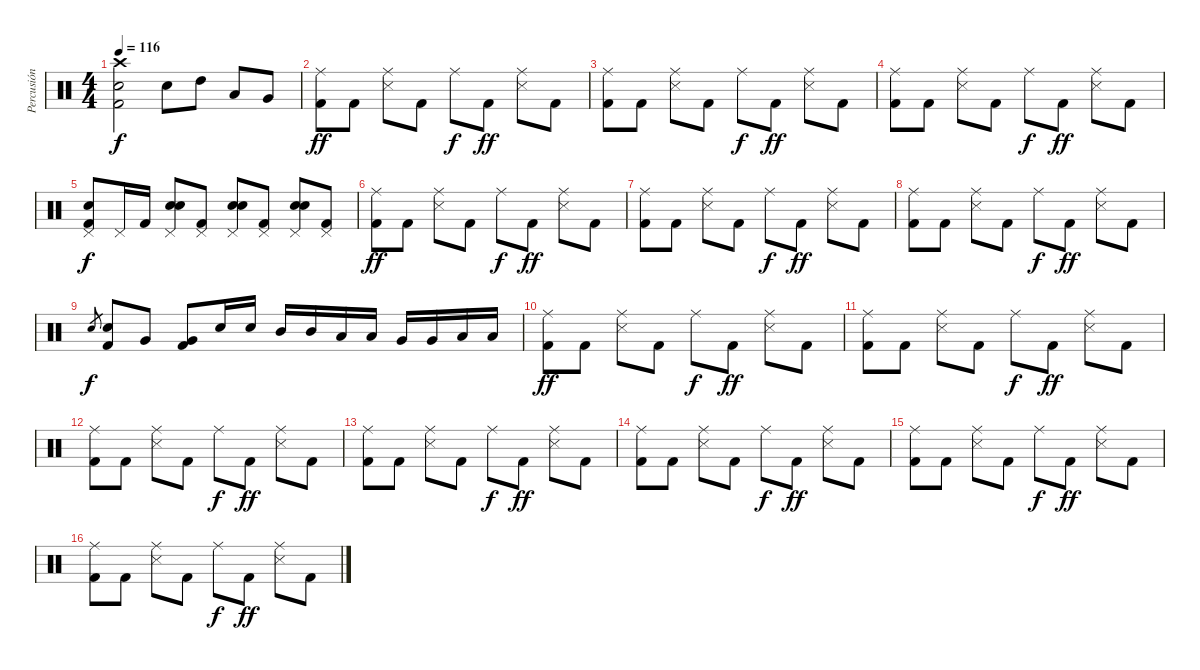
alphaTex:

\track ("Percusión" "Percusión") {instrument percussion}
\staff {score}
\articulation defaults
\ts (4 4)
\tempo 116
\clef neutral
\ks c
("Crash high (hit)" "Snare (hit) 2" "Kick (hit) 2").2{dy f} "Snare (hit) 2".8 "High Tom (hit)".8 "Low Tom (hit)".8 "Very Low Tom (hit)".8 |
("Ride (middle)" "Kick (hit) 2").8{dy ff} "Kick (hit) 2".8 ("Ride (middle)" "Snare (side stick) 3").8 "Kick (hit) 2".8 "Ride (middle)".8{dy f} "Kick (hit) 2".8{dy ff} ("Ride (middle)" "Snare (side stick) 3").8 "Kick (hit) 2".8 |
("Ride (middle)" "Kick (hit) 2").8 "Kick (hit) 2".8 ("Ride (middle)" "Snare (side stick) 3").8 "Kick (hit) 2".8 "Ride (middle)".8{dy f} "Kick (hit) 2".8{dy ff} ("Ride (middle)" "Snare (side stick) 3").8 "Kick (hit) 2".8 |
("Ride (middle)" "Kick (hit) 2").8 "Kick (hit) 2".8 ("Ride (middle)" "Snare (side stick) 3").8 "Kick (hit) 2".8 "Ride (middle)".8{dy f} "Kick (hit) 2".8{dy ff} ("Ride (middle)" "Snare (side stick) 3").8 "Kick (hit) 2".8 |
("Hand Clap (hit)" "Pedal Hi-Hat (hit)" "Kick (hit) 2").8{dy f} "Pedal Hi-Hat (hit)".16 "Kick (hit) 2".16 ("Hand Clap (hit)" "Pedal Hi-Hat (hit)" "Snare (hit) 2").8 ("Pedal Hi-Hat (hit)" "Kick (hit) 2").8 ("Hand Clap (hit)" "Pedal Hi-Hat (hit)" "Snare (hit) 2").8 ("Pedal Hi-Hat (hit)" "Kick (hit) 2").8 ("Hand Clap (hit)" "Pedal Hi-Hat (hit)" "Snare (hit) 2").8 ("Pedal Hi-Hat (hit)" "Kick (hit) 2").8 |
("Ride (middle)" "Kick (hit) 2").8{dy ff} "Kick (hit) 2".8 ("Ride (middle)" "Snare (side stick) 3").8 "Kick (hit) 2".8 "Ride (middle)".8{dy f} "Kick (hit) 2".8{dy ff} ("Ride (middle)" "Snare (side stick) 3").8 "Kick (hit) 2".8 |
("Ride (middle)" "Kick (hit) 2").8 "Kick (hit) 2".8 ("Ride (middle)" "Snare (side stick) 3").8 "Kick (hit) 2".8 "Ride (middle)".8{dy f} "Kick (hit) 2".8{dy ff} ("Ride (middle)" "Snare (side stick) 3").8 "Kick (hit) 2".8 |
("Ride (middle)" "Kick (hit) 2").8 "Kick (hit) 2".8 ("Ride (middle)" "Snare (side stick) 3").8 "Kick (hit) 2".8 "Ride (middle)".8{dy f} "Kick (hit) 2".8{dy ff} ("Ride (middle)" "Snare (side stick) 3").8 "Kick (hit) 2".8 |
"Snare (hit) 2".8{gr dy f} ("Snare (hit) 2" "Kick (hit) 2").8 "Very Low Tom (hit)".8 ("Very Low Tom (hit)" "Kick (hit) 2").8 "Snare (hit) 2".16 "Snare (hit) 2".16 "Mid Tom (hit)".16 "Mid Tom (hit)".16 "Low Tom (hit)".16 "Low Tom (hit)".16 "Very Low Tom (hit)".16 "Very Low Tom (hit)".16 "Low Floor Tom (hit)".16 "Low Floor Tom (hit)".16 |
("Ride (middle)" "Kick (hit) 2").8{dy ff} "Kick (hit) 2".8 ("Ride (middle)" "Snare (side stick) 3").8 "Kick (hit) 2".8 "Ride (middle)".8{dy f} "Kick (hit) 2".8{dy ff} ("Ride (middle)" "Snare (side stick) 3").8 "Kick (hit) 2".8 |
("Ride (middle)" "Kick (hit) 2").8 "Kick (hit) 2".8 ("Ride (middle)" "Snare (side stick) 3").8 "Kick (hit) 2".8 "Ride (middle)".8{dy f} "Kick (hit) 2".8{dy ff} ("Ride (middle)" "Snare (side stick) 3").8 "Kick (hit) 2".8 |
("Ride (middle)" "Kick (hit) 2").8 "Kick (hit) 2".8 ("Ride (middle)" "Snare (side stick) 3").8 "Kick (hit) 2".8 "Ride (middle)".8{dy f} "Kick (hit) 2".8{dy ff} ("Ride (middle)" "Snare (side stick) 3").8 "Kick (hit) 2".8 |
("Ride (middle)" "Kick (hit) 2").8 "Kick (hit) 2".8 ("Ride (middle)" "Snare (side stick) 3").8 "Kick (hit) 2".8 "Ride (middle)".8{dy f} "Kick (hit) 2".8{dy ff} ("Ride (middle)" "Snare (side stick) 3").8 "Kick (hit) 2".8 |
("Ride (middle)" "Kick (hit) 2").8 "Kick (hit) 2".8 ("Ride (middle)" "Snare (side stick) 3").8 "Kick (hit) 2".8 "Ride (middle)".8{dy f} "Kick (hit) 2".8{dy ff} ("Ride (middle)" "Snare (side stick) 3").8 "Kick (hit) 2".8 |
("Ride (middle)" "Kick (hit) 2").8 "Kick (hit) 2".8 ("Ride (middle)" "Snare (side stick) 3").8 "Kick (hit) 2".8 "Ride (middle)".8{dy f} "Kick (hit) 2".8{dy ff} ("Ride (middle)" "Snare (side stick) 3").8 "Kick (hit) 2".8 |
("Ride (middle)" "Kick (hit) 2").8 "Kick (hit) 2".8 ("Ride (middle)" "Snare (side stick) 3").8 "Kick (hit) 2".8 "Ride (middle)".8{dy f} "Kick (hit) 2".8{dy ff} ("Ride (middle)" "Snare (side stick) 3").8 "Kick (hit) 2".8
